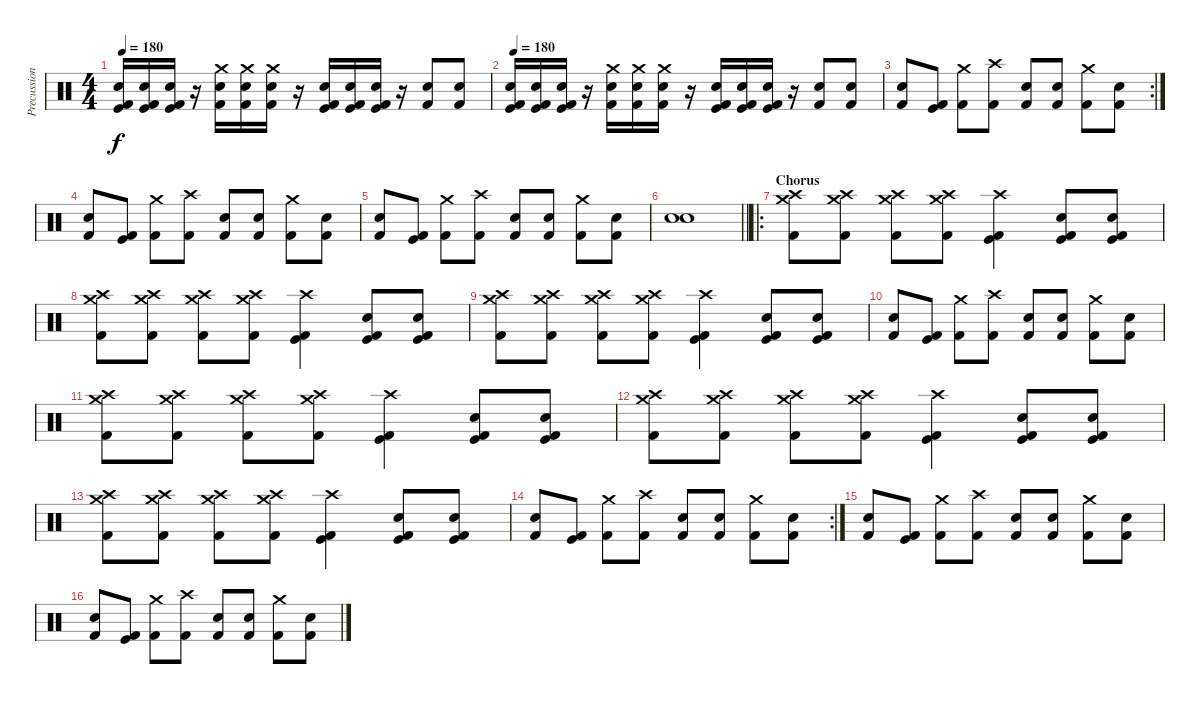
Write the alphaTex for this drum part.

\track ("Precussion" "Precussion") {instrument percussion}
\staff {score}
\articulation defaults
\ts (4 4)
\tempo 180
\clef neutral
\ks c
("Kick (hit)" "Electric Snare (hit)" "Kick (hit) 2").16{dy f} ("Kick (hit)" "Electric Snare (hit)" "Kick (hit) 2").16 ("Kick (hit)" "Electric Snare (hit)" "Kick (hit) 2").16 r.16 ("Crash medium (hit)" "Electric Snare (hit)" "Kick (hit) 2").16 ("Crash medium (hit)" "Electric Snare (hit)" "Kick (hit) 2").16 ("Crash medium (hit)" "Electric Snare (hit)" "Kick (hit) 2").16 r.16 ("Kick (hit)" "Electric Snare (hit)" "Kick (hit) 2").16 ("Kick (hit)" "Electric Snare (hit)" "Kick (hit) 2").16 ("Kick (hit)" "Electric Snare (hit)" "Kick (hit) 2").16 r.16 ("Snare (hit) 2" "Kick (hit) 2").8 ("Electric Snare (hit)" "Kick (hit) 2").8 |
\tempo 180
("Kick (hit)" "Electric Snare (hit)" "Kick (hit) 2").16 ("Kick (hit)" "Electric Snare (hit)" "Kick (hit) 2").16 ("Kick (hit)" "Electric Snare (hit)" "Kick (hit) 2").16 r.16 ("Crash medium (hit)" "Electric Snare (hit)" "Kick (hit) 2").16 ("Crash medium (hit)" "Electric Snare (hit)" "Kick (hit) 2").16 ("Crash medium (hit)" "Electric Snare (hit)" "Kick (hit) 2").16 r.16 ("Kick (hit)" "Electric Snare (hit)" "Kick (hit) 2").16 ("Kick (hit)" "Electric Snare (hit)" "Kick (hit) 2").16 ("Kick (hit)" "Electric Snare (hit)" "Kick (hit) 2").16 r.16 ("Electric Snare (hit)" "Kick (hit) 2").8 ("Snare (hit) 2" "Kick (hit) 2").8 |
\rc 2
("Electric Snare (hit)" "Kick (hit) 2").8 ("Kick (hit)" "Kick (hit) 2").8 ("Crash medium (hit)" "Kick (hit) 2").8 ("Crash high (hit)" "Kick (hit) 2").8 ("Snare (hit) 2" "Kick (hit) 2").8 ("Electric Snare (hit)" "Kick (hit) 2").8 ("Crash medium (hit)" "Kick (hit) 2").8 ("Snare (hit) 2" "Kick (hit) 2").8 |
("Electric Snare (hit)" "Kick (hit) 2").8 ("Kick (hit)" "Kick (hit) 2").8 ("Crash medium (hit)" "Kick (hit) 2").8 ("Crash high (hit)" "Kick (hit) 2").8 ("Snare (hit) 2" "Kick (hit) 2").8 ("Electric Snare (hit)" "Kick (hit) 2").8 ("Crash medium (hit)" "Kick (hit) 2").8 ("Snare (hit) 2" "Kick (hit) 2").8 |
("Electric Snare (hit)" "Kick (hit) 2").8 ("Kick (hit)" "Kick (hit) 2").8 ("Crash medium (hit)" "Kick (hit) 2").8 ("Crash high (hit)" "Kick (hit) 2").8 ("Snare (hit) 2" "Kick (hit) 2").8 ("Electric Snare (hit)" "Kick (hit) 2").8 ("Crash medium (hit)" "Kick (hit) 2").8 ("Snare (hit) 2" "Kick (hit) 2").8 |
\barLineRight lightlight
("Electric Snare (hit)" "Snare (hit) 2").1 |
\ro
\section ("" "Chorus")
("Crash medium (hit)" "Crash high (hit)" "Kick (hit) 2").8 ("Crash medium (hit)" "Crash high (hit)" "Kick (hit) 2").8 ("Crash medium (hit)" "Crash high (hit)" "Kick (hit) 2").8 ("Crash medium (hit)" "Crash high (hit)" "Kick (hit) 2").8 ("Kick (hit)" "Crash high (hit)" "Kick (hit) 2").4 ("Electric Snare (hit)" "Kick (hit)" "Kick (hit) 2").8 ("Electric Snare (hit)" "Kick (hit)" "Kick (hit) 2").8 |
("Crash medium (hit)" "Crash high (hit)" "Kick (hit) 2").8 ("Crash medium (hit)" "Crash high (hit)" "Kick (hit) 2").8 ("Crash medium (hit)" "Crash high (hit)" "Kick (hit) 2").8 ("Crash medium (hit)" "Crash high (hit)" "Kick (hit) 2").8 ("Kick (hit)" "Crash high (hit)" "Kick (hit) 2").4 ("Electric Snare (hit)" "Kick (hit)" "Kick (hit) 2").8 ("Electric Snare (hit)" "Kick (hit)" "Kick (hit) 2").8 |
("Crash medium (hit)" "Crash high (hit)" "Kick (hit) 2").8 ("Crash medium (hit)" "Crash high (hit)" "Kick (hit) 2").8 ("Crash medium (hit)" "Crash high (hit)" "Kick (hit) 2").8 ("Crash medium (hit)" "Crash high (hit)" "Kick (hit) 2").8 ("Kick (hit)" "Crash high (hit)" "Kick (hit) 2").4 ("Electric Snare (hit)" "Kick (hit)" "Kick (hit) 2").8 ("Electric Snare (hit)" "Kick (hit)" "Kick (hit) 2").8 |
("Electric Snare (hit)" "Kick (hit) 2").8 ("Kick (hit)" "Kick (hit) 2").8 ("Crash medium (hit)" "Kick (hit) 2").8 ("Crash high (hit)" "Kick (hit) 2").8 ("Snare (hit) 2" "Kick (hit) 2").8 ("Electric Snare (hit)" "Kick (hit) 2").8 ("Crash medium (hit)" "Kick (hit) 2").8 ("Snare (hit) 2" "Kick (hit) 2").8 |
("Crash medium (hit)" "Crash high (hit)" "Kick (hit) 2").8 ("Crash medium (hit)" "Crash high (hit)" "Kick (hit) 2").8 ("Crash medium (hit)" "Crash high (hit)" "Kick (hit) 2").8 ("Crash medium (hit)" "Crash high (hit)" "Kick (hit) 2").8 ("Kick (hit)" "Crash high (hit)" "Kick (hit) 2").4 ("Electric Snare (hit)" "Kick (hit)" "Kick (hit) 2").8 ("Electric Snare (hit)" "Kick (hit)" "Kick (hit) 2").8 |
("Crash medium (hit)" "Crash high (hit)" "Kick (hit) 2").8 ("Crash medium (hit)" "Crash high (hit)" "Kick (hit) 2").8 ("Crash medium (hit)" "Crash high (hit)" "Kick (hit) 2").8 ("Crash medium (hit)" "Crash high (hit)" "Kick (hit) 2").8 ("Kick (hit)" "Crash high (hit)" "Kick (hit) 2").4 ("Electric Snare (hit)" "Kick (hit)" "Kick (hit) 2").8 ("Electric Snare (hit)" "Kick (hit)" "Kick (hit) 2").8 |
("Crash medium (hit)" "Crash high (hit)" "Kick (hit) 2").8 ("Crash medium (hit)" "Crash high (hit)" "Kick (hit) 2").8 ("Crash medium (hit)" "Crash high (hit)" "Kick (hit) 2").8 ("Crash medium (hit)" "Crash high (hit)" "Kick (hit) 2").8 ("Kick (hit)" "Crash high (hit)" "Kick (hit) 2").4 ("Electric Snare (hit)" "Kick (hit)" "Kick (hit) 2").8 ("Electric Snare (hit)" "Kick (hit)" "Kick (hit) 2").8 |
\rc 2
("Electric Snare (hit)" "Kick (hit) 2").8 ("Kick (hit)" "Kick (hit) 2").8 ("Crash medium (hit)" "Kick (hit) 2").8 ("Crash high (hit)" "Kick (hit) 2").8 ("Snare (hit) 2" "Kick (hit) 2").8 ("Electric Snare (hit)" "Kick (hit) 2").8 ("Crash medium (hit)" "Kick (hit) 2").8 ("Snare (hit) 2" "Kick (hit) 2").8 |
("Electric Snare (hit)" "Kick (hit) 2").8 ("Kick (hit)" "Kick (hit) 2").8 ("Crash medium (hit)" "Kick (hit) 2").8 ("Crash high (hit)" "Kick (hit) 2").8 ("Snare (hit) 2" "Kick (hit) 2").8 ("Electric Snare (hit)" "Kick (hit) 2").8 ("Crash medium (hit)" "Kick (hit) 2").8 ("Snare (hit) 2" "Kick (hit) 2").8 |
("Electric Snare (hit)" "Kick (hit) 2").8 ("Kick (hit)" "Kick (hit) 2").8 ("Crash medium (hit)" "Kick (hit) 2").8 ("Crash high (hit)" "Kick (hit) 2").8 ("Snare (hit) 2" "Kick (hit) 2").8 ("Electric Snare (hit)" "Kick (hit) 2").8 ("Crash medium (hit)" "Kick (hit) 2").8 ("Snare (hit) 2" "Kick (hit) 2").8
